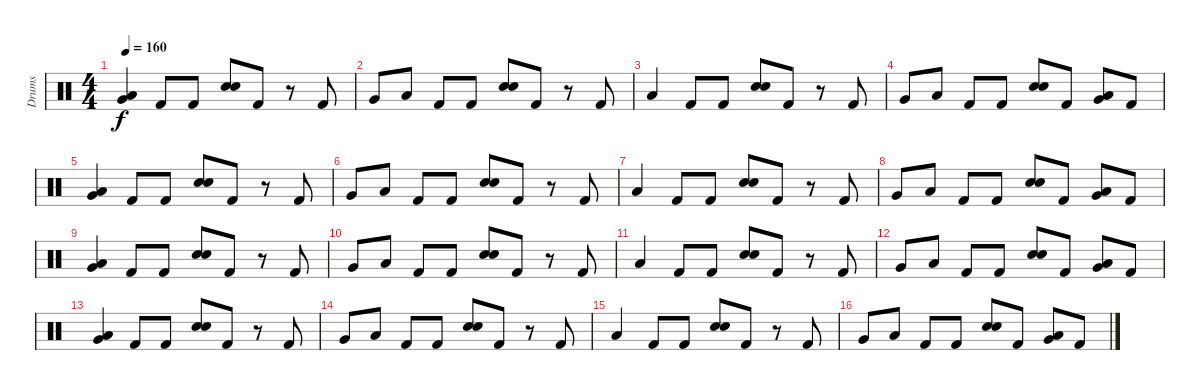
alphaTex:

\track ("Drums" "Drums") {instrument percussion}
\staff {score}
\articulation defaults
\ts (4 4)
\tempo 160
\clef neutral
\ks c
("Very Low Tom (hit)" "Low Floor Tom (hit)").4{bd 120 dy f} "Kick (hit) 2".8 "Kick (hit) 2".8 ("Electric Snare (hit)" "Electric Snare (hit)").8{bd 120} "Kick (hit) 2".8 r.8 "Kick (hit) 2".8 |
"Very Low Tom (hit)".8 "Low Floor Tom (hit)".8 "Kick (hit) 2".8 "Kick (hit) 2".8 ("Electric Snare (hit)" "Electric Snare (hit)").8{bd 120} "Kick (hit) 2".8 r.8 "Kick (hit) 2".8 |
"Low Floor Tom (hit)".4 "Kick (hit) 2".8 "Kick (hit) 2".8 ("Electric Snare (hit)" "Electric Snare (hit)").8{bd 120} "Kick (hit) 2".8 r.8 "Kick (hit) 2".8 |
"Very Low Tom (hit)".8 "Low Floor Tom (hit)".8 "Kick (hit) 2".8 "Kick (hit) 2".8 ("Electric Snare (hit)" "Electric Snare (hit)").8{bd 120} "Kick (hit) 2".8 ("Low Floor Tom (hit)" "Very Low Tom (hit)").8{bd 120} "Kick (hit) 2".8 |
("Very Low Tom (hit)" "Low Floor Tom (hit)").4{bd 120} "Kick (hit) 2".8 "Kick (hit) 2".8 ("Electric Snare (hit)" "Electric Snare (hit)").8{bd 120} "Kick (hit) 2".8 r.8 "Kick (hit) 2".8 |
"Very Low Tom (hit)".8 "Low Floor Tom (hit)".8 "Kick (hit) 2".8 "Kick (hit) 2".8 ("Electric Snare (hit)" "Electric Snare (hit)").8{bd 120} "Kick (hit) 2".8 r.8 "Kick (hit) 2".8 |
"Low Floor Tom (hit)".4 "Kick (hit) 2".8 "Kick (hit) 2".8 ("Electric Snare (hit)" "Electric Snare (hit)").8{bd 120} "Kick (hit) 2".8 r.8 "Kick (hit) 2".8 |
"Very Low Tom (hit)".8 "Low Floor Tom (hit)".8 "Kick (hit) 2".8 "Kick (hit) 2".8 ("Electric Snare (hit)" "Electric Snare (hit)").8{bd 120} "Kick (hit) 2".8 ("Low Floor Tom (hit)" "Very Low Tom (hit)").8{bd 120} "Kick (hit) 2".8 |
("Very Low Tom (hit)" "Low Floor Tom (hit)").4{bd 120} "Kick (hit) 2".8 "Kick (hit) 2".8 ("Electric Snare (hit)" "Electric Snare (hit)").8{bd 120} "Kick (hit) 2".8 r.8 "Kick (hit) 2".8 |
"Very Low Tom (hit)".8 "Low Floor Tom (hit)".8 "Kick (hit) 2".8 "Kick (hit) 2".8 ("Electric Snare (hit)" "Electric Snare (hit)").8{bd 120} "Kick (hit) 2".8 r.8 "Kick (hit) 2".8 |
"Low Floor Tom (hit)".4 "Kick (hit) 2".8 "Kick (hit) 2".8 ("Electric Snare (hit)" "Electric Snare (hit)").8{bd 120} "Kick (hit) 2".8 r.8 "Kick (hit) 2".8 |
"Very Low Tom (hit)".8 "Low Floor Tom (hit)".8 "Kick (hit) 2".8 "Kick (hit) 2".8 ("Electric Snare (hit)" "Electric Snare (hit)").8{bd 120} "Kick (hit) 2".8 ("Low Floor Tom (hit)" "Very Low Tom (hit)").8{bd 120} "Kick (hit) 2".8 |
("Very Low Tom (hit)" "Low Floor Tom (hit)").4{bd 120} "Kick (hit) 2".8 "Kick (hit) 2".8 ("Electric Snare (hit)" "Electric Snare (hit)").8{bd 120} "Kick (hit) 2".8 r.8 "Kick (hit) 2".8 |
"Very Low Tom (hit)".8 "Low Floor Tom (hit)".8 "Kick (hit) 2".8 "Kick (hit) 2".8 ("Electric Snare (hit)" "Electric Snare (hit)").8{bd 120} "Kick (hit) 2".8 r.8 "Kick (hit) 2".8 |
"Low Floor Tom (hit)".4 "Kick (hit) 2".8 "Kick (hit) 2".8 ("Electric Snare (hit)" "Electric Snare (hit)").8{bd 120} "Kick (hit) 2".8 r.8 "Kick (hit) 2".8 |
"Very Low Tom (hit)".8 "Low Floor Tom (hit)".8 "Kick (hit) 2".8 "Kick (hit) 2".8 ("Electric Snare (hit)" "Electric Snare (hit)").8{bd 120} "Kick (hit) 2".8 ("Low Floor Tom (hit)" "Very Low Tom (hit)").8{bd 120} "Kick (hit) 2".8
